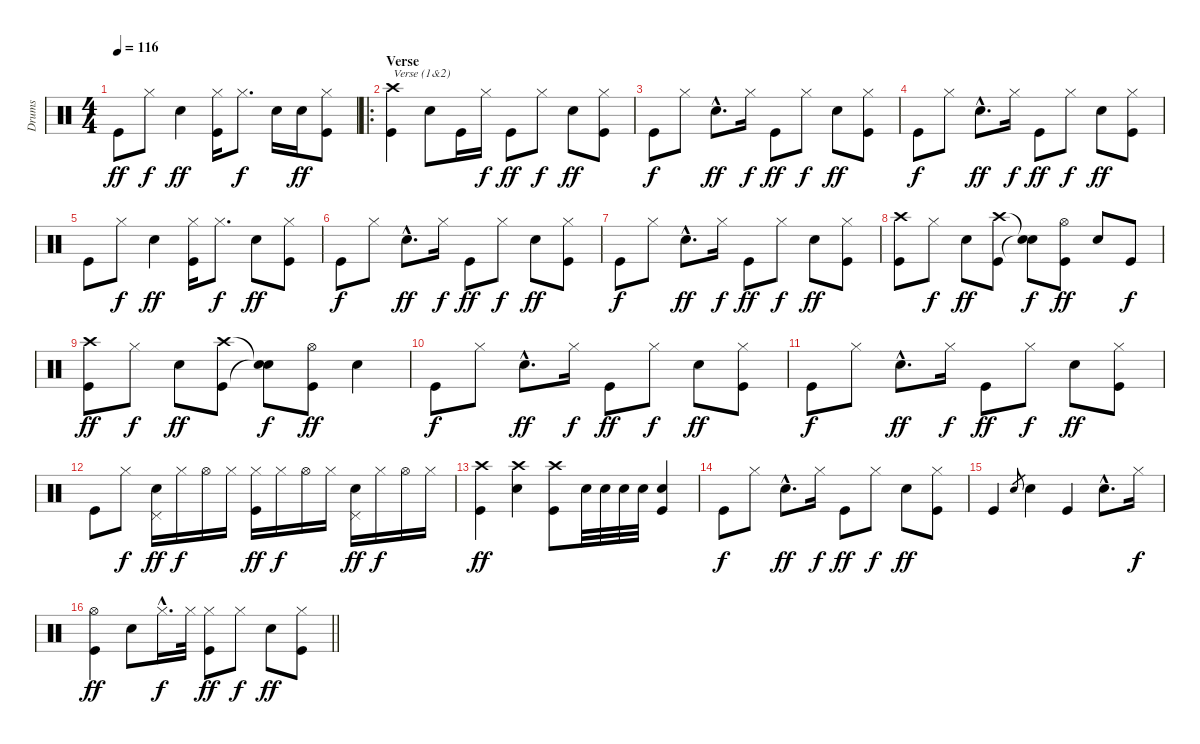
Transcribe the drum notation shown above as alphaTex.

\track ("Drums" "Drums") {instrument percussion}
\staff {score}
\articulation defaults
\ts (4 4)
\tempo 116
\clef neutral
\ks c "Kick (hit)".8{dy ff} "Hi-Hat (closed)".8{dy f} "Snare (hit) 2".4{dy ff}
("Hi-Hat (closed)" "Kick (hit)").16 "Hi-Hat (closed)".8{d dy f} "Snare (hit) 2".16 "Snare (hit) 2".16{dy ff} ("Hi-Hat (closed)" "Kick (hit)").8 |
\ro
\section ("" "Verse")
("Crash high (hit)" "Kick (hit)").4{txt "Verse (1&2)"} "Snare (hit) 2".8 "Kick (hit)".16 "Hi-Hat (closed)".16{dy f} "Kick (hit)".8{dy ff} "Hi-Hat (closed)".8{dy f} "Snare (hit) 2".8{dy ff} ("Hi-Hat (closed)" "Kick (hit)").8 |
"Kick (hit)".8{dy f} "Hi-Hat (closed)".8 "Snare (hit) 2"{hac}.8{d dy ff} "Hi-Hat (closed)".16{dy f} "Kick (hit)".8{dy ff} "Hi-Hat (closed)".8{dy f} "Snare (hit) 2".8{dy ff} ("Hi-Hat (closed)" "Kick (hit)").8 |
"Kick (hit)".8{dy f} "Hi-Hat (closed)".8 "Snare (hit) 2"{hac}.8{d dy ff} "Hi-Hat (closed)".16{dy f} "Kick (hit)".8{dy ff} "Hi-Hat (closed)".8{dy f} "Snare (hit) 2".8{dy ff} ("Hi-Hat (closed)" "Kick (hit)").8 |
"Kick (hit)".8 "Hi-Hat (closed)".8{dy f} "Snare (hit) 2".4{dy ff} ("Hi-Hat (closed)" "Kick (hit)").16 "Hi-Hat (closed)".8{d dy f} "Snare (hit) 2".8{dy ff} ("Hi-Hat (closed)" "Kick (hit)").8 |
"Kick (hit)".8{dy f} "Hi-Hat (closed)".8 "Snare (hit) 2"{hac}.8{d dy ff} "Hi-Hat (closed)".16{dy f} "Kick (hit)".8{dy ff} "Hi-Hat (closed)".8{dy f} "Snare (hit) 2".8{dy ff} ("Hi-Hat (closed)" "Kick (hit)").8 |
"Kick (hit)".8{dy f} "Hi-Hat (closed)".8 "Snare (hit) 2"{hac}.8{d dy ff} "Hi-Hat (closed)".16{dy f} "Kick (hit)".8{dy ff} "Hi-Hat (closed)".8{dy f} "Snare (hit) 2".8{dy ff} ("Hi-Hat (closed)" "Kick (hit)").8 |
("Crash high (hit)" "Kick (hit)").8 "Hi-Hat (closed)".8{dy f} "Snare (hit) 2".8{dy ff} ("Crash high (hit)" "Kick (hit)").8 ("Snare (hit)"{t} "Snare (hit)"{t}).8{dy f} ("Hi-Hat (open)" "Kick (hit)").8{dy ff} "Snare (hit) 2".8 "Kick (hit)".8{dy f} |
("Crash high (hit)" "Kick (hit)").8{dy ff} "Hi-Hat (closed)".8{dy f} "Snare (hit) 2".8{dy ff} ("Crash high (hit)" "Kick (hit)").8 ("Snare (hit)"{t} "Snare (hit)"{t}).8{dy f} ("Hi-Hat (open)" "Kick (hit)").8{dy ff} "Snare (hit) 2".4 |
"Kick (hit)".8{dy f} "Hi-Hat (closed)".8 "Snare (hit) 2"{hac}.8{d dy ff} "Hi-Hat (closed)".16{dy f} "Kick (hit)".8{dy ff} "Hi-Hat (closed)".8{dy f} "Snare (hit) 2".8{dy ff} ("Hi-Hat (closed)" "Kick (hit)").8 |
"Kick (hit)".8{dy f} "Hi-Hat (closed)".8 "Snare (hit) 2"{hac}.8{d dy ff} "Hi-Hat (closed)".16{dy f} "Kick (hit)".8{dy ff} "Hi-Hat (closed)".8{dy f} "Snare (hit) 2".8{dy ff} ("Hi-Hat (closed)" "Kick (hit)").8 |
"Kick (hit)".8 "Hi-Hat (closed)".8{dy f} ("Pedal Hi-Hat (hit)" "Snare (hit) 2").16{dy ff} "Hi-Hat (closed)".16{dy f} "Hi-Hat (open)".16 "Hi-Hat (closed)".16 ("Hi-Hat (closed)" "Kick (hit)").16{dy ff} "Hi-Hat (closed)".16{dy f} "Hi-Hat (open)".16 "Hi-Hat (closed)".16 ("Pedal Hi-Hat (hit)" "Snare (hit) 2").16{dy ff} "Hi-Hat (closed)".16{dy f} "Hi-Hat (open)".16 "Hi-Hat (closed)".16 |
("Crash high (hit)" "Kick (hit)").4{dy ff} ("Crash high (hit)" "Snare (hit) 2").4 ("Crash high (hit)" "Kick (hit)").8 "Snare (hit) 2".32 "Snare (hit) 2".32 "Snare (hit) 2".32 "Snare (hit) 2".32 ("Snare (hit) 2" "Kick (hit)").4 |
"Kick (hit)".8{dy f} "Hi-Hat (closed)".8 "Snare (hit) 2"{hac}.8{d dy ff} "Hi-Hat (closed)".16{dy f} "Kick (hit)".8{dy ff} "Hi-Hat (closed)".8{dy f} "Snare (hit) 2".8{dy ff} ("Hi-Hat (closed)" "Kick (hit)").8 |
"Kick (hit)".4 "Snare (hit) 2".8{gr} "Snare (hit) 2".4 "Kick (hit)".4 "Snare (hit) 2"{hac}.8{d} "Hi-Hat (closed)".16{dy f} |
\barLineRight lightlight
("Hi-Hat (open)" "Kick (hit)").4{dy ff} "Snare (hit) 2".8 "Hi-Hat (closed)"{hac}.16{d dy f} "Hi-Hat (closed)".32 ("Hi-Hat (closed)" "Kick (hit)").8{dy ff} "Hi-Hat (closed)".8{dy f} "Snare (hit) 2".8{dy ff} ("Hi-Hat (closed)" "Kick (hit)").8
